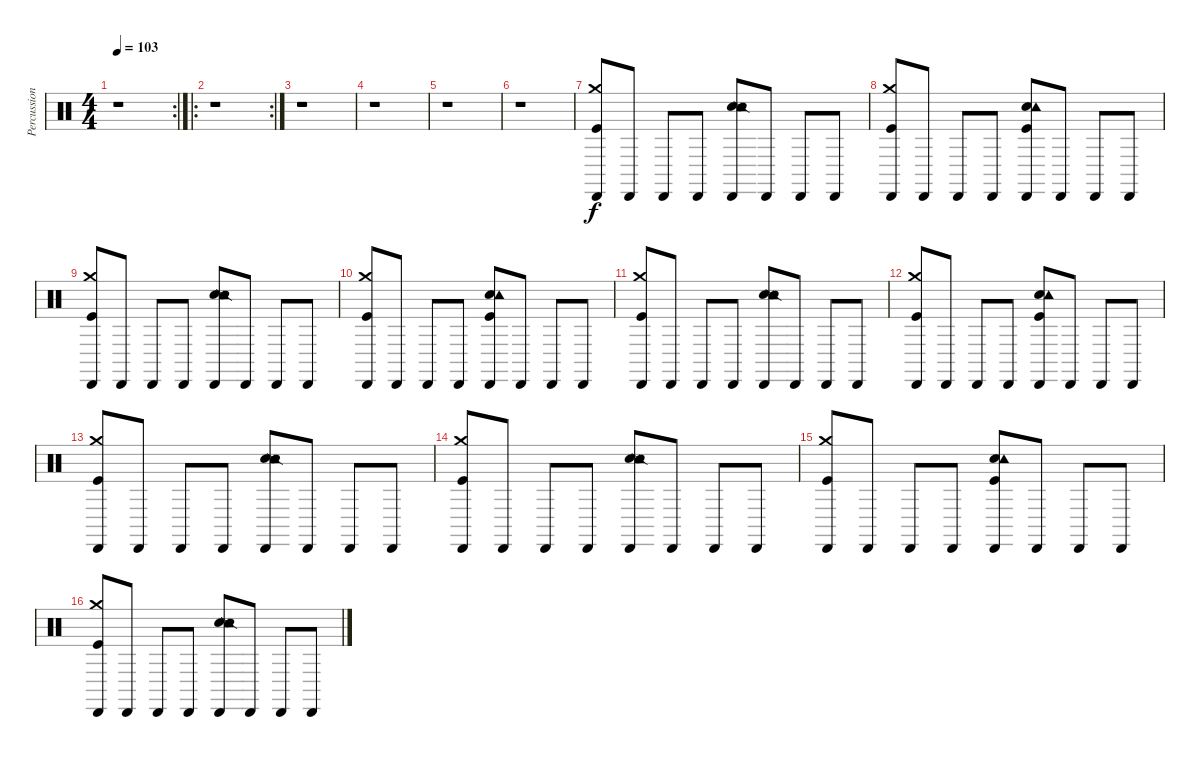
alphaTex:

\track ("Percussion" "Percussion") {instrument percussion}
\staff {score}
\articulation defaults
\rc 2
\ts (4 4)
\tempo 103
\clef neutral
\ks c
r.1{dy f} |
\ro
\rc 2
r.1 |
r.1 |
r.1 |
r.1 |
r.1 |
("Cabasa (hit)" "Kick (hit)" "Crash medium (hit)").8 "Cabasa (hit)".8 "Cabasa (hit)".8 "Cabasa (hit)".8 ("Cabasa (hit)" "Hand Clap (hit)" "Snare (side stick) 2" "Tambourine (hit)").8 "Cabasa (hit)".8 "Cabasa (hit)".8 "Cabasa (hit)".8 |
("Cabasa (hit)" "Kick (hit)" "Crash medium (hit)").8 "Cabasa (hit)".8 "Cabasa (hit)".8 "Cabasa (hit)".8 ("Cabasa (hit)" "Hand Clap (hit)" "Kick (hit)" "Tambourine (hit)").8 "Cabasa (hit)".8 "Cabasa (hit)".8 "Cabasa (hit)".8 |
("Cabasa (hit)" "Kick (hit)" "Crash medium (hit)").8 "Cabasa (hit)".8 "Cabasa (hit)".8 "Cabasa (hit)".8 ("Cabasa (hit)" "Hand Clap (hit)" "Snare (side stick) 2" "Tambourine (hit)").8 "Cabasa (hit)".8 "Cabasa (hit)".8 "Cabasa (hit)".8 |
("Cabasa (hit)" "Kick (hit)" "Crash medium (hit)").8 "Cabasa (hit)".8 "Cabasa (hit)".8 "Cabasa (hit)".8 ("Cabasa (hit)" "Hand Clap (hit)" "Kick (hit)" "Tambourine (hit)").8 "Cabasa (hit)".8 "Cabasa (hit)".8 "Cabasa (hit)".8 |
("Cabasa (hit)" "Kick (hit)" "Crash medium (hit)").8 "Cabasa (hit)".8 "Cabasa (hit)".8 "Cabasa (hit)".8 ("Cabasa (hit)" "Hand Clap (hit)" "Snare (side stick) 2" "Tambourine (hit)").8 "Cabasa (hit)".8 "Cabasa (hit)".8 "Cabasa (hit)".8 |
("Cabasa (hit)" "Kick (hit)" "Crash medium (hit)").8 "Cabasa (hit)".8 "Cabasa (hit)".8 "Cabasa (hit)".8 ("Cabasa (hit)" "Hand Clap (hit)" "Kick (hit)" "Tambourine (hit)").8 "Cabasa (hit)".8 "Cabasa (hit)".8 "Cabasa (hit)".8 |
("Cabasa (hit)" "Kick (hit)" "Crash medium (hit)").8 "Cabasa (hit)".8 "Cabasa (hit)".8 "Cabasa (hit)".8 ("Cabasa (hit)" "Hand Clap (hit)" "Snare (side stick) 2" "Tambourine (hit)").8 "Cabasa (hit)".8 "Cabasa (hit)".8 "Cabasa (hit)".8 |
("Cabasa (hit)" "Kick (hit)" "Crash medium (hit)").8 "Cabasa (hit)".8 "Cabasa (hit)".8 "Cabasa (hit)".8 ("Cabasa (hit)" "Hand Clap (hit)" "Snare (side stick) 2" "Tambourine (hit)").8 "Cabasa (hit)".8 "Cabasa (hit)".8 "Cabasa (hit)".8 |
("Cabasa (hit)" "Kick (hit)" "Crash medium (hit)").8 "Cabasa (hit)".8 "Cabasa (hit)".8 "Cabasa (hit)".8 ("Cabasa (hit)" "Hand Clap (hit)" "Kick (hit)" "Tambourine (hit)").8 "Cabasa (hit)".8 "Cabasa (hit)".8 "Cabasa (hit)".8 |
("Cabasa (hit)" "Kick (hit)" "Crash medium (hit)").8 "Cabasa (hit)".8 "Cabasa (hit)".8 "Cabasa (hit)".8 ("Cabasa (hit)" "Hand Clap (hit)" "Snare (side stick) 2" "Tambourine (hit)").8 "Cabasa (hit)".8 "Cabasa (hit)".8 "Cabasa (hit)".8
